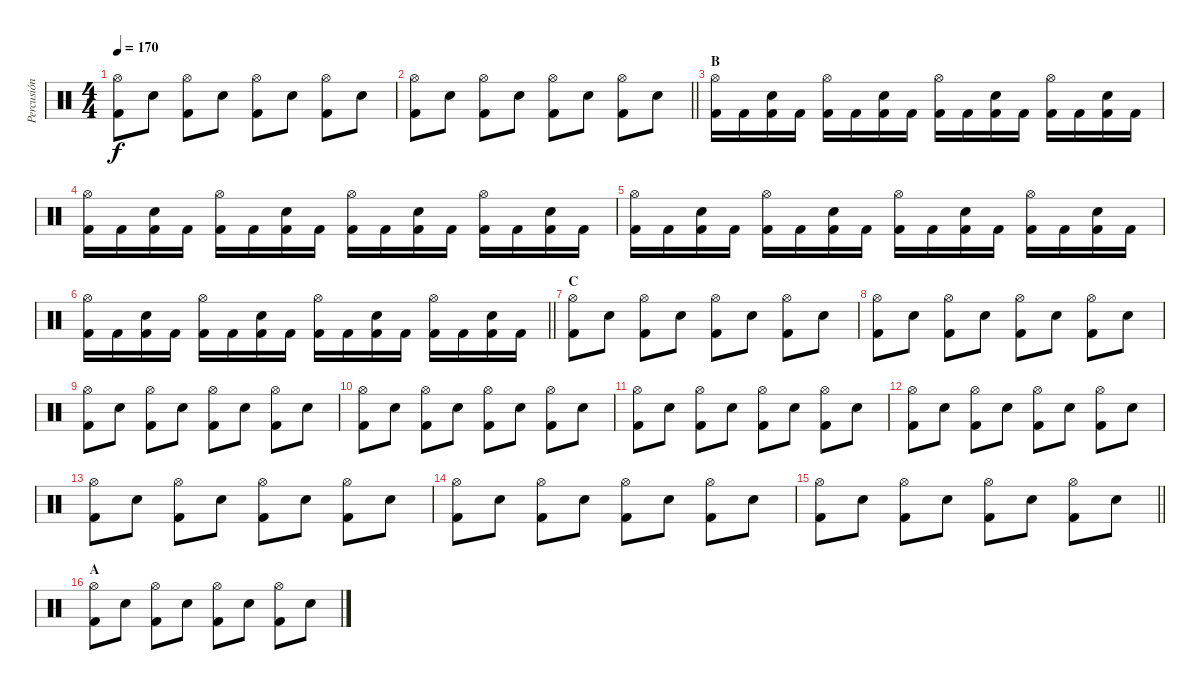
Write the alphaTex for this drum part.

\track ("Percusión" "Percusión") {instrument percussion}
\staff {score}
\articulation defaults
\ts (4 4)
\tempo 170
\clef neutral
\ks c
("Hi-Hat (open)" "Kick (hit) 2").8{dy f} "Snare (hit) 2".8 ("Hi-Hat (open)" "Kick (hit) 2").8 "Snare (hit) 2".8 ("Hi-Hat (open)" "Kick (hit) 2").8 "Snare (hit) 2".8 ("Hi-Hat (open)" "Kick (hit) 2").8 "Snare (hit) 2".8 |
\barLineRight lightlight
("Hi-Hat (open)" "Kick (hit) 2").8 "Snare (hit) 2".8 ("Hi-Hat (open)" "Kick (hit) 2").8 "Snare (hit) 2".8 ("Hi-Hat (open)" "Kick (hit) 2").8 "Snare (hit) 2".8 ("Hi-Hat (open)" "Kick (hit) 2").8 "Snare (hit) 2".8 |
\section ("" "B")
("Hi-Hat (open)" "Kick (hit) 2").16 "Kick (hit) 2".16 ("Snare (hit) 2" "Kick (hit) 2").16 "Kick (hit) 2".16 ("Hi-Hat (open)" "Kick (hit) 2").16 "Kick (hit) 2".16 ("Snare (hit) 2" "Kick (hit) 2").16 "Kick (hit) 2".16 ("Hi-Hat (open)" "Kick (hit) 2").16 "Kick (hit) 2".16 ("Snare (hit) 2" "Kick (hit) 2").16 "Kick (hit) 2".16 ("Hi-Hat (open)" "Kick (hit) 2").16 "Kick (hit) 2".16 ("Snare (hit) 2" "Kick (hit) 2").16 "Kick (hit) 2".16 |
("Hi-Hat (open)" "Kick (hit) 2").16 "Kick (hit) 2".16 ("Snare (hit) 2" "Kick (hit) 2").16 "Kick (hit) 2".16 ("Hi-Hat (open)" "Kick (hit) 2").16 "Kick (hit) 2".16 ("Snare (hit) 2" "Kick (hit) 2").16 "Kick (hit) 2".16 ("Hi-Hat (open)" "Kick (hit) 2").16 "Kick (hit) 2".16 ("Snare (hit) 2" "Kick (hit) 2").16 "Kick (hit) 2".16 ("Hi-Hat (open)" "Kick (hit) 2").16 "Kick (hit) 2".16 ("Snare (hit) 2" "Kick (hit) 2").16 "Kick (hit) 2".16 |
("Hi-Hat (open)" "Kick (hit) 2").16 "Kick (hit) 2".16 ("Snare (hit) 2" "Kick (hit) 2").16 "Kick (hit) 2".16 ("Hi-Hat (open)" "Kick (hit) 2").16 "Kick (hit) 2".16 ("Snare (hit) 2" "Kick (hit) 2").16 "Kick (hit) 2".16 ("Hi-Hat (open)" "Kick (hit) 2").16 "Kick (hit) 2".16 ("Snare (hit) 2" "Kick (hit) 2").16 "Kick (hit) 2".16 ("Hi-Hat (open)" "Kick (hit) 2").16 "Kick (hit) 2".16 ("Snare (hit) 2" "Kick (hit) 2").16 "Kick (hit) 2".16 |
\barLineRight lightlight
("Hi-Hat (open)" "Kick (hit) 2").16 "Kick (hit) 2".16 ("Snare (hit) 2" "Kick (hit) 2").16 "Kick (hit) 2".16 ("Hi-Hat (open)" "Kick (hit) 2").16 "Kick (hit) 2".16 ("Snare (hit) 2" "Kick (hit) 2").16 "Kick (hit) 2".16 ("Hi-Hat (open)" "Kick (hit) 2").16 "Kick (hit) 2".16 ("Snare (hit) 2" "Kick (hit) 2").16 "Kick (hit) 2".16 ("Hi-Hat (open)" "Kick (hit) 2").16 "Kick (hit) 2".16 ("Snare (hit) 2" "Kick (hit) 2").16 "Kick (hit) 2".16 |
\section ("" "C")
("Hi-Hat (open)" "Kick (hit) 2").8 "Snare (hit) 2".8 ("Hi-Hat (open)" "Kick (hit) 2").8 "Snare (hit) 2".8 ("Hi-Hat (open)" "Kick (hit) 2").8 "Snare (hit) 2".8 ("Hi-Hat (open)" "Kick (hit) 2").8 "Snare (hit) 2".8 |
("Hi-Hat (open)" "Kick (hit) 2").8 "Snare (hit) 2".8 ("Hi-Hat (open)" "Kick (hit) 2").8 "Snare (hit) 2".8 ("Hi-Hat (open)" "Kick (hit) 2").8 "Snare (hit) 2".8 ("Hi-Hat (open)" "Kick (hit) 2").8 "Snare (hit) 2".8 |
("Hi-Hat (open)" "Kick (hit) 2").8 "Snare (hit) 2".8 ("Hi-Hat (open)" "Kick (hit) 2").8 "Snare (hit) 2".8 ("Hi-Hat (open)" "Kick (hit) 2").8 "Snare (hit) 2".8 ("Hi-Hat (open)" "Kick (hit) 2").8 "Snare (hit) 2".8 |
("Hi-Hat (open)" "Kick (hit) 2").8 "Snare (hit) 2".8 ("Hi-Hat (open)" "Kick (hit) 2").8 "Snare (hit) 2".8 ("Hi-Hat (open)" "Kick (hit) 2").8 "Snare (hit) 2".8 ("Hi-Hat (open)" "Kick (hit) 2").8 "Snare (hit) 2".8 |
("Hi-Hat (open)" "Kick (hit) 2").8 "Snare (hit) 2".8 ("Hi-Hat (open)" "Kick (hit) 2").8 "Snare (hit) 2".8 ("Hi-Hat (open)" "Kick (hit) 2").8 "Snare (hit) 2".8 ("Hi-Hat (open)" "Kick (hit) 2").8 "Snare (hit) 2".8 |
("Hi-Hat (open)" "Kick (hit) 2").8 "Snare (hit) 2".8 ("Hi-Hat (open)" "Kick (hit) 2").8 "Snare (hit) 2".8 ("Hi-Hat (open)" "Kick (hit) 2").8 "Snare (hit) 2".8 ("Hi-Hat (open)" "Kick (hit) 2").8 "Snare (hit) 2".8 |
("Hi-Hat (open)" "Kick (hit) 2").8 "Snare (hit) 2".8 ("Hi-Hat (open)" "Kick (hit) 2").8 "Snare (hit) 2".8 ("Hi-Hat (open)" "Kick (hit) 2").8 "Snare (hit) 2".8 ("Hi-Hat (open)" "Kick (hit) 2").8 "Snare (hit) 2".8 |
("Hi-Hat (open)" "Kick (hit) 2").8 "Snare (hit) 2".8 ("Hi-Hat (open)" "Kick (hit) 2").8 "Snare (hit) 2".8 ("Hi-Hat (open)" "Kick (hit) 2").8 "Snare (hit) 2".8 ("Hi-Hat (open)" "Kick (hit) 2").8 "Snare (hit) 2".8 |
\barLineRight lightlight
("Hi-Hat (open)" "Kick (hit) 2").8 "Snare (hit) 2".8 ("Hi-Hat (open)" "Kick (hit) 2").8 "Snare (hit) 2".8 ("Hi-Hat (open)" "Kick (hit) 2").8 "Snare (hit) 2".8 ("Hi-Hat (open)" "Kick (hit) 2").8 "Snare (hit) 2".8 |
\section ("" "A")
("Hi-Hat (open)" "Kick (hit) 2").8 "Snare (hit) 2".8 ("Hi-Hat (open)" "Kick (hit) 2").8 "Snare (hit) 2".8 ("Hi-Hat (open)" "Kick (hit) 2").8 "Snare (hit) 2".8 ("Hi-Hat (open)" "Kick (hit) 2").8 "Snare (hit) 2".8
